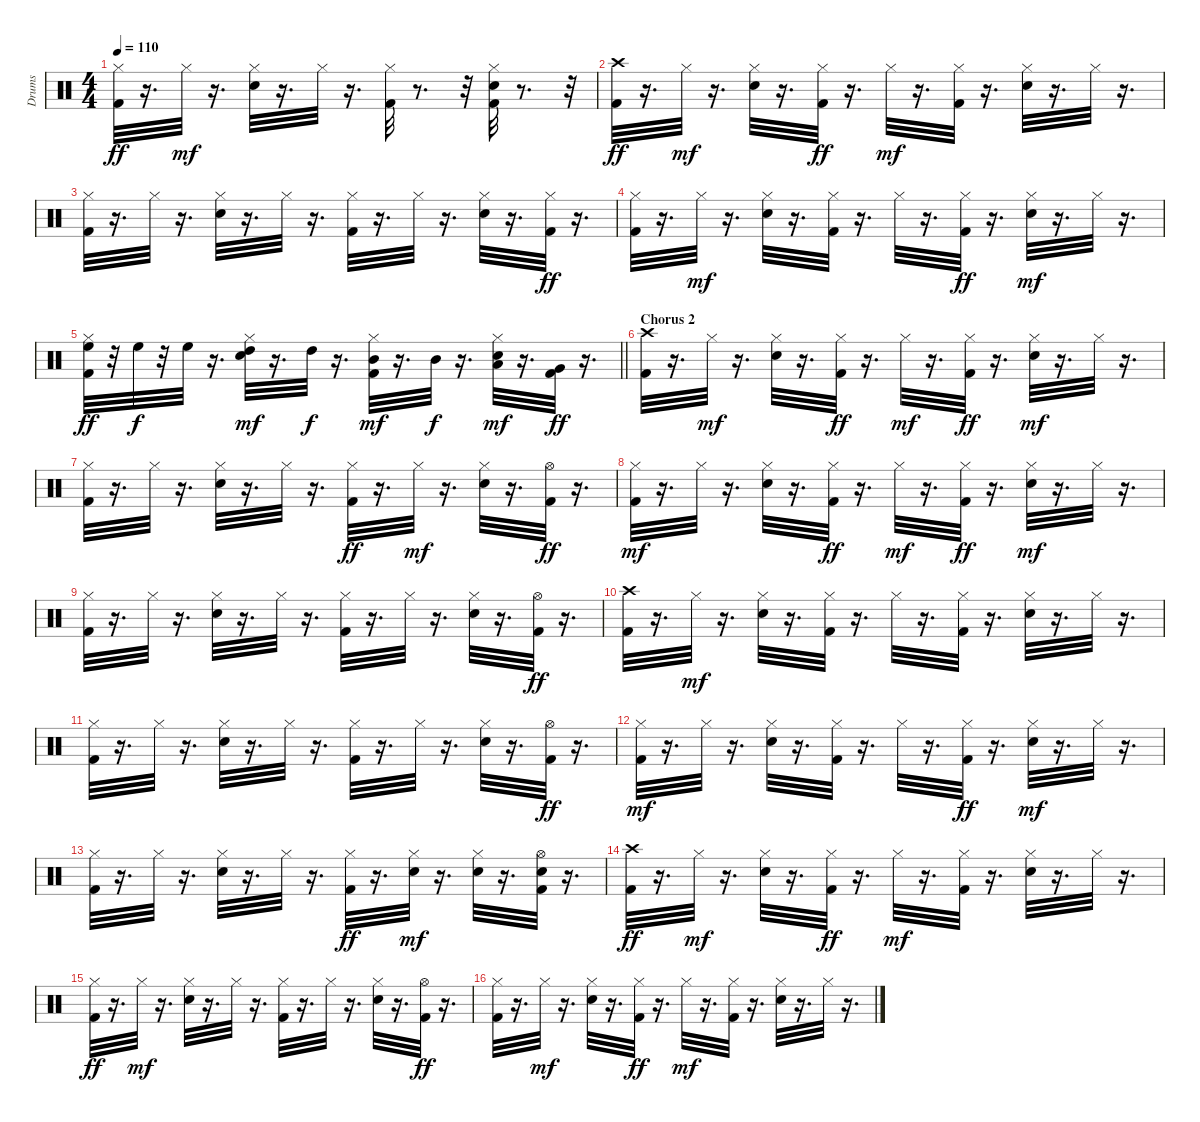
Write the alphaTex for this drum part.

\track ("Drums" "Drums") {instrument percussion}
\staff {score}
\articulation defaults
\ts (4 4)
\tempo 110
\clef neutral
\ks c
("Hi-Hat (closed)" "Kick (hit) 2").32{dy ff} r.16{d} "Hi-Hat (closed)".32{dy mf} r.16{d} ("Snare (hit) 2" "Hi-Hat (closed)").32 r.16{d} "Hi-Hat (closed)".32 r.16{d} ("Kick (hit) 2" "Hi-Hat (closed)").32 r.8{d} r.32 ("Snare (hit) 2" "Kick (hit) 2" "Hi-Hat (closed)").32 r.8{d} r.32 |
("Crash high (hit)" "Kick (hit) 2").32{dy ff} r.16{d} "Hi-Hat (closed)".32{dy mf} r.16{d} ("Hi-Hat (closed)" "Snare (hit) 2").32 r.16{d} ("Hi-Hat (closed)" "Kick (hit) 2").32{dy ff} r.16{d} "Hi-Hat (closed)".32{dy mf} r.16{d} ("Kick (hit) 2" "Hi-Hat (closed)").32 r.16{d} ("Snare (hit) 2" "Hi-Hat (closed)").32 r.16{d} "Hi-Hat (closed)".32 r.16{d} |
("Kick (hit) 2" "Hi-Hat (closed)").32 r.16{d} "Hi-Hat (closed)".32 r.16{d} ("Hi-Hat (closed)" "Snare (hit) 2").32 r.16{d} "Hi-Hat (closed)".32 r.16{d} ("Kick (hit) 2" "Hi-Hat (closed)").32 r.16{d} "Hi-Hat (closed)".32 r.16{d} ("Hi-Hat (closed)" "Snare (hit) 2").32 r.16{d} ("Hi-Hat (closed)" "Kick (hit) 2").32{dy ff} r.16{d} |
("Hi-Hat (closed)" "Kick (hit) 2").32 r.16{d} "Hi-Hat (closed)".32{dy mf} r.16{d} ("Snare (hit) 2" "Hi-Hat (closed)").32 r.16{d} ("Kick (hit) 2" "Hi-Hat (closed)").32 r.16{d} "Hi-Hat (closed)".32 r.16{d} ("Hi-Hat (closed)" "Kick (hit) 2").32{dy ff} r.16{d} ("Snare (hit) 2" "Hi-Hat (closed)").32{dy mf} r.16{d} "Hi-Hat (closed)".32 r.16{d} |
\barLineRight lightlight
("Hi-Hat (closed)" "Kick (hit) 2" "High Floor Tom (hit)").32{dy ff} r.32 "High Floor Tom (hit)".32{dy f} r.32 "High Floor Tom (hit)".32 r.16{d} ("High Tom (hit)" "Hi-Hat (closed)" "Snare (hit) 2").32{dy mf} r.16{d} "High Tom (hit)".32{dy f} r.16{d} ("Kick (hit) 2" "Hi-Hat (closed)" "Mid Tom (hit)").32{dy mf} r.16{d} "Mid Tom (hit)".32{dy f} r.16{d} ("Low Tom (hit)" "Hi-Hat (closed)" "Snare (hit) 2").32{dy mf} r.16{d} ("Very Low Tom (hit)" "Kick (hit) 2").32{dy ff} r.16{d} |
\section ("" "Chorus 2")
("Kick (hit) 2" "Crash high (hit)").32 r.16{d} "Hi-Hat (closed)".32{dy mf} r.16{d} ("Snare (hit) 2" "Hi-Hat (closed)").32 r.16{d} ("Hi-Hat (closed)" "Kick (hit) 2").32{dy ff} r.16{d} "Hi-Hat (closed)".32{dy mf} r.16{d} ("Hi-Hat (closed)" "Kick (hit) 2").32{dy ff} r.16{d} ("Hi-Hat (closed)" "Snare (hit) 2").32{dy mf} r.16{d} "Hi-Hat (closed)".32 r.16{d} |
("Kick (hit) 2" "Hi-Hat (closed)").32 r.16{d} "Hi-Hat (closed)".32 r.16{d} ("Hi-Hat (closed)" "Snare (hit) 2").32 r.16{d} "Hi-Hat (closed)".32 r.16{d} ("Hi-Hat (closed)" "Kick (hit) 2").32{dy ff} r.16{d} "Hi-Hat (closed)".32{dy mf} r.16{d} ("Hi-Hat (closed)" "Snare (hit) 2").32 r.16{d} ("Hi-Hat (open)" "Kick (hit) 2").32{dy ff} r.16{d} |
("Kick (hit) 2" "Hi-Hat (closed)").32{dy mf} r.16{d} "Hi-Hat (closed)".32 r.16{d} ("Snare (hit) 2" "Hi-Hat (closed)").32 r.16{d} ("Hi-Hat (closed)" "Kick (hit) 2").32{dy ff} r.16{d} "Hi-Hat (closed)".32{dy mf} r.16{d} ("Hi-Hat (closed)" "Kick (hit) 2").32{dy ff} r.16{d} ("Snare (hit) 2" "Hi-Hat (closed)").32{dy mf} r.16{d} "Hi-Hat (closed)".32 r.16{d} |
("Kick (hit) 2" "Hi-Hat (closed)").32 r.16{d} "Hi-Hat (closed)".32 r.16{d} ("Hi-Hat (closed)" "Snare (hit) 2").32 r.16{d} "Hi-Hat (closed)".32 r.16{d} ("Kick (hit) 2" "Hi-Hat (closed)").32 r.16{d} "Hi-Hat (closed)".32 r.16{d} ("Hi-Hat (closed)" "Snare (hit) 2").32 r.16{d} ("Hi-Hat (open)" "Kick (hit) 2").32{dy ff} r.16{d} |
("Crash high (hit)" "Kick (hit) 2").32 r.16{d} "Hi-Hat (closed)".32{dy mf} r.16{d} ("Hi-Hat (closed)" "Snare (hit) 2").32 r.16{d} ("Kick (hit) 2" "Hi-Hat (closed)").32 r.16{d} "Hi-Hat (closed)".32 r.16{d} ("Kick (hit) 2" "Hi-Hat (closed)").32 r.16{d} ("Hi-Hat (closed)" "Snare (hit) 2").32 r.16{d} "Hi-Hat (closed)".32 r.16{d} |
("Kick (hit) 2" "Hi-Hat (closed)").32 r.16{d} "Hi-Hat (closed)".32 r.16{d} ("Hi-Hat (closed)" "Snare (hit) 2").32 r.16{d} "Hi-Hat (closed)".32 r.16{d} ("Kick (hit) 2" "Hi-Hat (closed)").32 r.16{d} "Hi-Hat (closed)".32 r.16{d} ("Hi-Hat (closed)" "Snare (hit) 2").32 r.16{d} ("Hi-Hat (open)" "Kick (hit) 2").32{dy ff} r.16{d} |
("Kick (hit) 2" "Hi-Hat (closed)").32{dy mf} r.16{d} "Hi-Hat (closed)".32 r.16{d} ("Snare (hit) 2" "Hi-Hat (closed)").32 r.16{d} ("Kick (hit) 2" "Hi-Hat (closed)").32 r.16{d} "Hi-Hat (closed)".32 r.16{d} ("Hi-Hat (closed)" "Kick (hit) 2").32{dy ff} r.16{d} ("Snare (hit) 2" "Hi-Hat (closed)").32{dy mf} r.16{d} "Hi-Hat (closed)".32 r.16{d} |
("Kick (hit) 2" "Hi-Hat (closed)").32 r.16{d} "Hi-Hat (closed)".32 r.16{d} ("Hi-Hat (closed)" "Snare (hit) 2").32 r.16{d} "Hi-Hat (closed)".32 r.16{d} ("Hi-Hat (closed)" "Kick (hit) 2").32{dy ff} r.16{d} ("Hi-Hat (closed)" "Snare (hit) 2").32{dy mf} r.16{d} ("Snare (hit) 2" "Hi-Hat (closed)").32 r.16{d} ("Snare (hit) 2" "Kick (hit) 2" "Hi-Hat (open)").32 r.16{d} |
("Kick (hit) 2" "Crash high (hit)").32{dy ff} r.16{d} "Hi-Hat (closed)".32{dy mf} r.16{d} ("Snare (hit) 2" "Hi-Hat (closed)").32 r.16{d} ("Hi-Hat (closed)" "Kick (hit) 2").32{dy ff} r.16{d} "Hi-Hat (closed)".32{dy mf} r.16{d} ("Kick (hit) 2" "Hi-Hat (closed)").32 r.16{d} ("Hi-Hat (closed)" "Snare (hit) 2").32 r.16{d} "Hi-Hat (closed)".32 r.16{d} |
("Hi-Hat (closed)" "Kick (hit) 2").32{dy ff} r.16{d} "Hi-Hat (closed)".32{dy mf} r.16{d} ("Snare (hit) 2" "Hi-Hat (closed)").32 r.16{d} "Hi-Hat (closed)".32 r.16{d} ("Kick (hit) 2" "Hi-Hat (closed)").32 r.16{d} "Hi-Hat (closed)".32 r.16{d} ("Snare (hit) 2" "Hi-Hat (closed)").32 r.16{d} ("Hi-Hat (open)" "Kick (hit) 2").32{dy ff} r.16{d} |
("Hi-Hat (closed)" "Kick (hit) 2").32 r.16{d} "Hi-Hat (closed)".32{dy mf} r.16{d} ("Snare (hit) 2" "Hi-Hat (closed)").32 r.16{d} ("Hi-Hat (closed)" "Kick (hit) 2").32{dy ff} r.16{d} "Hi-Hat (closed)".32{dy mf} r.16{d} ("Kick (hit) 2" "Hi-Hat (closed)").32 r.16{d} ("Hi-Hat (closed)" "Snare (hit) 2").32 r.16{d} "Hi-Hat (closed)".32 r.16{d}
